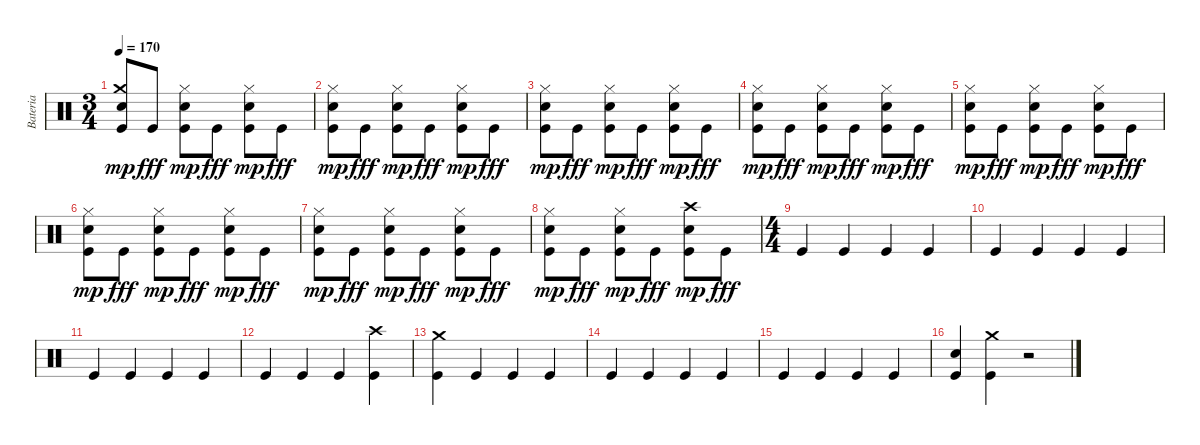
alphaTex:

\track ("Bateria" "Bateria") {instrument percussion}
\staff {score}
\articulation defaults
\ts (3 4)
\tempo 170
\clef neutral
\ks c
("Kick (hit)" "Crash medium (hit)" "Snare (hit) 2").8{dy mp} "Kick (hit)".8{dy fff} ("Kick (hit)" "Snare (hit) 2" "Hi-Hat (closed)").8{dy mp} "Kick (hit)".8{dy fff} ("Kick (hit)" "Hi-Hat (closed)" "Snare (hit) 2").8{dy mp} "Kick (hit)".8{dy fff} |
("Kick (hit)" "Hi-Hat (closed)" "Snare (hit) 2").8{dy mp} "Kick (hit)".8{dy fff} ("Kick (hit)" "Hi-Hat (closed)" "Snare (hit) 2").8{dy mp} "Kick (hit)".8{dy fff} ("Kick (hit)" "Hi-Hat (closed)" "Snare (hit) 2").8{dy mp} "Kick (hit)".8{dy fff} |
("Kick (hit)" "Hi-Hat (closed)" "Snare (hit) 2").8{dy mp} "Kick (hit)".8{dy fff} ("Kick (hit)" "Hi-Hat (closed)" "Snare (hit) 2").8{dy mp} "Kick (hit)".8{dy fff} ("Kick (hit)" "Hi-Hat (closed)" "Snare (hit) 2").8{dy mp} "Kick (hit)".8{dy fff} |
("Kick (hit)" "Hi-Hat (closed)" "Snare (hit) 2").8{dy mp} "Kick (hit)".8{dy fff} ("Kick (hit)" "Hi-Hat (closed)" "Snare (hit) 2").8{dy mp} "Kick (hit)".8{dy fff} ("Kick (hit)" "Hi-Hat (closed)" "Snare (hit) 2").8{dy mp} "Kick (hit)".8{dy fff} |
("Kick (hit)" "Hi-Hat (closed)" "Snare (hit) 2").8{dy mp} "Kick (hit)".8{dy fff} ("Kick (hit)" "Hi-Hat (closed)" "Snare (hit) 2").8{dy mp} "Kick (hit)".8{dy fff} ("Kick (hit)" "Hi-Hat (closed)" "Snare (hit) 2").8{dy mp} "Kick (hit)".8{dy fff} |
("Kick (hit)" "Hi-Hat (closed)" "Snare (hit) 2").8{dy mp} "Kick (hit)".8{dy fff} ("Kick (hit)" "Hi-Hat (closed)" "Snare (hit) 2").8{dy mp} "Kick (hit)".8{dy fff} ("Kick (hit)" "Hi-Hat (closed)" "Snare (hit) 2").8{dy mp} "Kick (hit)".8{dy fff} |
("Kick (hit)" "Hi-Hat (closed)" "Snare (hit) 2").8{dy mp} "Kick (hit)".8{dy fff} ("Kick (hit)" "Hi-Hat (closed)" "Snare (hit) 2").8{dy mp} "Kick (hit)".8{dy fff} ("Kick (hit)" "Hi-Hat (closed)" "Snare (hit) 2").8{dy mp} "Kick (hit)".8{dy fff} |
("Kick (hit)" "Hi-Hat (closed)" "Snare (hit) 2").8{dy mp} "Kick (hit)".8{dy fff} ("Kick (hit)" "Hi-Hat (closed)" "Snare (hit) 2").8{dy mp} "Kick (hit)".8{dy fff} ("Kick (hit)" "Crash high (hit)" "Snare (hit) 2").8{dy mp} "Kick (hit)".8{dy fff} |
\ts (4 4)
"Kick (hit)".4 "Kick (hit)".4 "Kick (hit)".4 "Kick (hit)".4 |
"Kick (hit)".4 "Kick (hit)".4 "Kick (hit)".4 "Kick (hit)".4 |
"Kick (hit)".4 "Kick (hit)".4 "Kick (hit)".4 "Kick (hit)".4 |
"Kick (hit)".4 "Kick (hit)".4 "Kick (hit)".4 ("Kick (hit)" "Crash high (hit)").4 |
("Kick (hit)" "Crash medium (hit)").4 "Kick (hit)".4 "Kick (hit)".4 "Kick (hit)".4 |
"Kick (hit)".4 "Kick (hit)".4 "Kick (hit)".4 "Kick (hit)".4 |
"Kick (hit)".4 "Kick (hit)".4 "Kick (hit)".4 "Kick (hit)".4 |
("Kick (hit)" "Snare (hit) 2").4 ("Kick (hit)" "Crash medium (hit)").4 r.2
